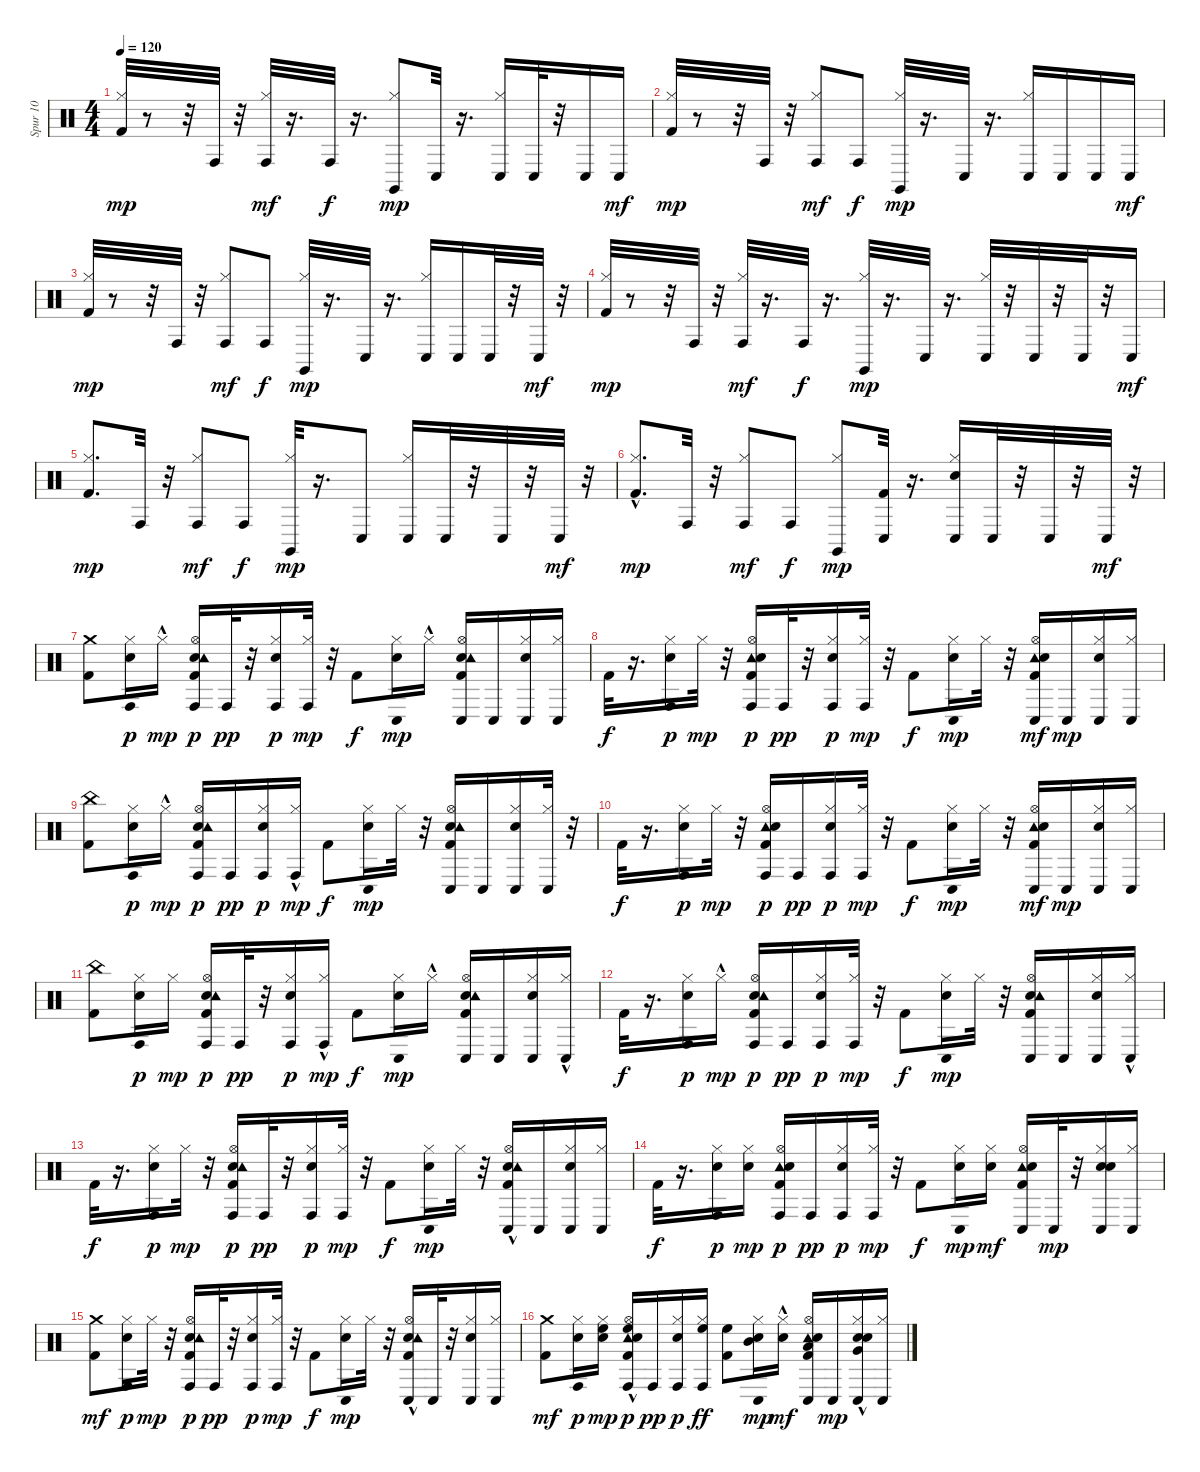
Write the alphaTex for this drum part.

\track ("Spur 10" "Spur 10") {instrument percussion}
\staff {score}
\articulation defaults
\ts (4 4)
\tempo 120
\clef neutral
\ks c
("Hi-Hat (closed)" "Kick (hit) 2").32{dy mp} r.8 r.32 "Conga high (hit)".32 r.32 ("Hi-Hat (closed)" "Conga high (hit)").32{dy mf} r.16{d} "Conga high (hit)".32{dy f} r.16{d} ("Hi-Hat (closed)" "Claves (hit)").8{dy mp} "Conga low (hit)".32 r.16{d} ("Hi-Hat (closed)" "Conga low (hit)").16 "Conga low (hit)".32 r.32 "Conga low (hit)".16 "Conga low (hit)".16{dy mf} |
("Hi-Hat (closed)" "Kick (hit) 2").32{dy mp} r.8 r.32 "Conga high (hit)".32 r.32 ("Hi-Hat (closed)" "Conga high (hit)").8{dy mf} "Conga high (hit)".8{dy f} ("Hi-Hat (closed)" "Claves (hit)").32{dy mp} r.16{d} "Conga low (hit)".32 r.16{d} ("Hi-Hat (closed)" "Conga low (hit)").16 "Conga low (hit)".16 "Conga low (hit)".16 "Conga low (hit)".16{dy mf} |
("Hi-Hat (closed)" "Kick (hit) 2").32{dy mp} r.8 r.32 "Conga high (hit)".32 r.32 ("Hi-Hat (closed)" "Conga high (hit)").8{dy mf} "Conga high (hit)".8{dy f} ("Hi-Hat (closed)" "Claves (hit)").32{dy mp} r.16{d} "Conga low (hit)".32 r.16{d} ("Hi-Hat (closed)" "Conga low (hit)").16 "Conga low (hit)".16 "Conga low (hit)".32 r.32 "Conga low (hit)".32{dy mf} r.32 |
("Hi-Hat (closed)" "Kick (hit) 2").32{dy mp} r.8 r.32 "Conga high (hit)".32 r.32 ("Hi-Hat (closed)" "Conga high (hit)").32{dy mf} r.16{d} "Conga high (hit)".32{dy f} r.16{d} ("Hi-Hat (closed)" "Claves (hit)").32{dy mp} r.16{d} "Conga low (hit)".32 r.16{d} ("Hi-Hat (closed)" "Conga low (hit)").32 r.32 "Conga low (hit)".32 r.32 "Conga low (hit)".32 r.32 "Conga low (hit)".16{dy mf} |
("Hi-Hat (closed)" "Kick (hit) 2").8{d dy mp} "Conga high (hit)".32 r.32 ("Hi-Hat (closed)" "Conga high (hit)").8{dy mf} "Conga high (hit)".8{dy f} ("Hi-Hat (closed)" "Claves (hit)").32{dy mp} r.16{d} "Conga low (hit)".8 ("Hi-Hat (closed)" "Conga low (hit)").16 "Conga low (hit)".32 r.32 "Conga low (hit)".32 r.32 "Conga low (hit)".32{dy mf} r.32 |
("Hi-Hat (closed)"{hac} "Kick (hit) 2"{hac}).8{d dy mp} "Conga high (hit)".32 r.32 ("Hi-Hat (closed)" "Conga high (hit)").8{dy mf} "Conga high (hit)".8{dy f} ("Hi-Hat (closed)" "Claves (hit)").8{dy mp} ("Conga low (hit)" "Kick (hit) 2").32 r.16{d} ("Hi-Hat (closed)" "Conga low (hit)" "Snare (hit) 2").16 "Conga low (hit)".32 r.32 "Conga low (hit)".32 r.32 "Conga low (hit)".32{dy mf} r.32 |
("Crash medium (hit)" "Kick (hit) 2").8 ("Hi-Hat (closed)" "Snare (hit)" "Conga high (hit)").16{dy p} "Hi-Hat (closed)"{hac}.16{dy mp} ("Hi-Hat (open)" "Snare (hit) 2" "Tambourine (hit)" "Kick (hit) 2" "Conga high (hit)").16{dy p} "Conga high (hit)".32{dy pp} r.32 ("Hi-Hat (closed)" "Snare (hit)" "Conga high (hit)").16{dy p} ("Hi-Hat (closed)" "Conga high (hit)").32{dy mp} r.32 "Kick (hit) 2".8{dy f} ("Hi-Hat (closed)" "Snare (hit)" "Conga low (hit)").16{dy mp} "Hi-Hat (closed)"{hac}.16 ("Hi-Hat (open)" "Snare (hit) 2" "Kick (hit) 2" "Tambourine (hit)" "Conga low (hit)").16 "Conga low (hit)".16 ("Hi-Hat (closed)" "Snare (hit)" "Conga low (hit)").16 ("Conga low (hit)" "Hi-Hat (closed)").16 |
"Kick (hit) 2".32{dy f} r.16{d} ("Hi-Hat (closed)" "Snare (hit)" "Conga high (hit)").16{dy p} "Hi-Hat (closed)".32{dy mp} r.32 ("Hi-Hat (open)" "Tambourine (hit)" "Kick (hit) 2" "Snare (hit) 2" "Conga high (hit)").16{dy p} "Conga high (hit)".32{dy pp} r.32 ("Hi-Hat (closed)" "Snare (hit)" "Conga high (hit)").16{dy p} ("Hi-Hat (closed)" "Conga high (hit)").32{dy mp} r.32 "Kick (hit) 2".8{dy f} ("Hi-Hat (closed)" "Snare (hit)" "Conga low (hit)").16{dy mp} "Hi-Hat (closed)".32 r.32 ("Hi-Hat (open)" "Kick (hit) 2" "Tambourine (hit)" "Conga low (hit)" "Snare (hit) 2").16{dy mf} "Conga low (hit)".16{dy mp} ("Hi-Hat (closed)" "Snare (hit)" "Conga low (hit)").16 ("Conga low (hit)" "Hi-Hat (closed)").16 |
("China (hit)" "Kick (hit) 2").8 ("Hi-Hat (closed)" "Snare (hit)" "Conga high (hit)").16{dy p} "Hi-Hat (closed)"{hac}.16{dy mp} ("Hi-Hat (open)" "Snare (hit) 2" "Tambourine (hit)" "Kick (hit) 2" "Conga high (hit)").16{dy p} "Conga high (hit)".16{dy pp} ("Hi-Hat (closed)" "Snare (hit)" "Conga high (hit)").16{dy p} ("Hi-Hat (closed)"{hac} "Conga high (hit)").16{dy mp} "Kick (hit) 2".8{dy f} ("Hi-Hat (closed)" "Snare (hit)" "Conga low (hit)").16{dy mp} "Hi-Hat (closed)".32 r.32 ("Hi-Hat (open)" "Snare (hit) 2" "Kick (hit) 2" "Tambourine (hit)" "Conga low (hit)").16 "Conga low (hit)".16 ("Hi-Hat (closed)" "Snare (hit)" "Conga low (hit)").16 ("Conga low (hit)" "Hi-Hat (closed)").32 r.32 |
"Kick (hit) 2".32{dy f} r.16{d} ("Hi-Hat (closed)" "Snare (hit)" "Conga high (hit)").16{dy p} "Hi-Hat (closed)".32{dy mp} r.32 ("Hi-Hat (open)" "Tambourine (hit)" "Kick (hit) 2" "Snare (hit) 2" "Conga high (hit)").16{dy p} "Conga high (hit)".16{dy pp} ("Hi-Hat (closed)" "Snare (hit)" "Conga high (hit)").16{dy p} ("Hi-Hat (closed)" "Conga high (hit)").32{dy mp} r.32 "Kick (hit) 2".8{dy f} ("Hi-Hat (closed)" "Snare (hit)" "Conga low (hit)").16{dy mp} "Hi-Hat (closed)".32 r.32 ("Hi-Hat (open)" "Kick (hit) 2" "Tambourine (hit)" "Conga low (hit)" "Snare (hit) 2").16{dy mf} "Conga low (hit)".16{dy mp} ("Hi-Hat (closed)" "Snare (hit)" "Conga low (hit)").16 ("Conga low (hit)" "Hi-Hat (closed)").16 |
("China (hit)" "Kick (hit) 2").8 ("Hi-Hat (closed)" "Snare (hit)" "Conga high (hit)").16{dy p} "Hi-Hat (closed)".16{dy mp} ("Hi-Hat (open)" "Snare (hit) 2" "Tambourine (hit)" "Kick (hit) 2" "Conga high (hit)").16{dy p} "Conga high (hit)".32{dy pp} r.32 ("Hi-Hat (closed)" "Snare (hit)" "Conga high (hit)").16{dy p} ("Hi-Hat (closed)"{hac} "Conga high (hit)").16{dy mp} "Kick (hit) 2".8{dy f} ("Hi-Hat (closed)" "Snare (hit)" "Conga low (hit)").16{dy mp} "Hi-Hat (closed)"{hac}.16 ("Hi-Hat (open)" "Snare (hit) 2" "Kick (hit) 2" "Tambourine (hit)" "Conga low (hit)").16 "Conga low (hit)".16 ("Hi-Hat (closed)" "Snare (hit)" "Conga low (hit)").16 ("Conga low (hit)" "Hi-Hat (closed)"{hac}).16 |
"Kick (hit) 2".32{dy f} r.16{d} ("Hi-Hat (closed)" "Snare (hit)" "Conga high (hit)").16{dy p} "Hi-Hat (closed)"{hac}.16{dy mp} ("Hi-Hat (open)" "Snare (hit) 2" "Tambourine (hit)" "Kick (hit) 2" "Conga high (hit)").16{dy p} "Conga high (hit)".16{dy pp} ("Hi-Hat (closed)" "Snare (hit)" "Conga high (hit)").16{dy p} ("Hi-Hat (closed)" "Conga high (hit)").32{dy mp} r.32 "Kick (hit) 2".8{dy f} ("Hi-Hat (closed)" "Snare (hit)" "Conga low (hit)").16{dy mp} "Hi-Hat (closed)".32 r.32 ("Hi-Hat (open)" "Snare (hit) 2" "Kick (hit) 2" "Tambourine (hit)" "Conga low (hit)").16 "Conga low (hit)".16 ("Hi-Hat (closed)" "Snare (hit)" "Conga low (hit)").16 ("Conga low (hit)" "Hi-Hat (closed)"{hac}).16 |
"Kick (hit) 2".32{dy f} r.16{d} ("Hi-Hat (closed)" "Snare (hit)" "Conga high (hit)").16{dy p} "Hi-Hat (closed)".32{dy mp} r.32 ("Hi-Hat (open)" "Snare (hit) 2" "Tambourine (hit)" "Kick (hit) 2" "Conga high (hit)").16{dy p} "Conga high (hit)".32{dy pp} r.32 ("Hi-Hat (closed)" "Snare (hit)" "Conga high (hit)").16{dy p} ("Hi-Hat (closed)" "Conga high (hit)").32{dy mp} r.32 "Kick (hit) 2".8{dy f} ("Hi-Hat (closed)" "Snare (hit)" "Conga low (hit)").16{dy mp} "Hi-Hat (closed)".32 r.32 ("Hi-Hat (open)" "Snare (hit) 2"{hac} "Kick (hit) 2" "Tambourine (hit)" "Conga low (hit)").16 "Conga low (hit)".16 ("Hi-Hat (closed)" "Snare (hit)" "Conga low (hit)").16 ("Conga low (hit)" "Hi-Hat (closed)").16 |
"Kick (hit) 2".32{dy f} r.16{d} ("Hi-Hat (closed)" "Snare (hit)" "Conga high (hit)").16{dy p} ("Hi-Hat (closed)" "Snare (hit) 2").16{dy mp} ("Hi-Hat (open)" "Tambourine (hit)" "Kick (hit) 2" "Snare (hit) 2" "Conga high (hit)").16{dy p} "Conga high (hit)".16{dy pp} ("Hi-Hat (closed)" "Snare (hit)" "Conga high (hit)").16{dy p} ("Hi-Hat (closed)" "Conga high (hit)").32{dy mp} r.32 "Kick (hit) 2".8{dy f} ("Hi-Hat (closed)" "Snare (hit)" "Conga low (hit)").16{dy mp} ("Hi-Hat (closed)" "Snare (hit) 2").16{dy mf} ("Hi-Hat (open)" "Kick (hit) 2" "Tambourine (hit)" "Conga low (hit)" "Snare (hit) 2").16 "Conga low (hit)".32{dy mp} r.32 ("Hi-Hat (closed)" "Snare (hit)" "Conga low (hit)" "Snare (hit) 2").16 ("Conga low (hit)" "Hi-Hat (closed)").16 |
("Crash medium (hit)" "Kick (hit) 2").8{dy mf} ("Hi-Hat (closed)" "Snare (hit)" "Conga high (hit)").16{dy p} "Hi-Hat (closed)".32{dy mp} r.32 ("Hi-Hat (open)" "Snare (hit) 2" "Tambourine (hit)" "Kick (hit) 2" "Conga high (hit)").16{dy p} "Conga high (hit)".32{dy pp} r.32 ("Hi-Hat (closed)" "Snare (hit)" "Conga high (hit)").16{dy p} ("Hi-Hat (closed)" "Conga high (hit)").32{dy mp} r.32 "Kick (hit) 2".8{dy f} ("Hi-Hat (closed)" "Snare (hit)" "Conga low (hit)").16{dy mp} "Hi-Hat (closed)".32 r.32 ("Hi-Hat (open)" "Snare (hit) 2"{hac} "Kick (hit) 2" "Tambourine (hit)" "Conga low (hit)").16 "Conga low (hit)".32 r.32 ("Hi-Hat (closed)" "Snare (hit)" "Conga low (hit)").16 ("Conga low (hit)" "Hi-Hat (closed)").16 |
("Crash medium (hit)" "Kick (hit) 2").8{dy mf} ("Hi-Hat (closed)" "Snare (hit)" "Conga high (hit)").16{dy p} ("Hi-Hat (closed)" "Snare (hit) 2" "High Floor Tom (hit)").16{dy mp} ("High Floor Tom (hit)"{hac} "Hi-Hat (open)" "Tambourine (hit)" "Kick (hit) 2" "Snare (hit) 2" "Conga high (hit)").16{dy p} "Conga high (hit)".16{dy pp} ("Hi-Hat (closed)" "Snare (hit)" "Conga high (hit)").16{dy p} ("Hi-Hat (closed)" "Conga high (hit)" "High Floor Tom (hit)").16{dy ff} ("High Floor Tom (hit)" "Kick (hit) 2").8 ("Hi-Hat (closed)" "Snare (hit)" "Conga low (hit)" "Mid Tom (hit)").16{dy mp} ("Hi-Hat (closed)"{hac} "Snare (hit) 2").16{dy mf} ("Hi-Hat (open)" "Low Tom (hit)" "Kick (hit) 2" "Tambourine (hit)" "Conga low (hit)" "Snare (hit) 2").16 "Conga low (hit)".16{dy mp} ("Very Low Tom (hit)" "Hi-Hat (closed)" "Snare (hit)" "Conga low (hit)" "Snare (hit) 2"{hac}).16 ("Conga low (hit)" "Hi-Hat (closed)").16
